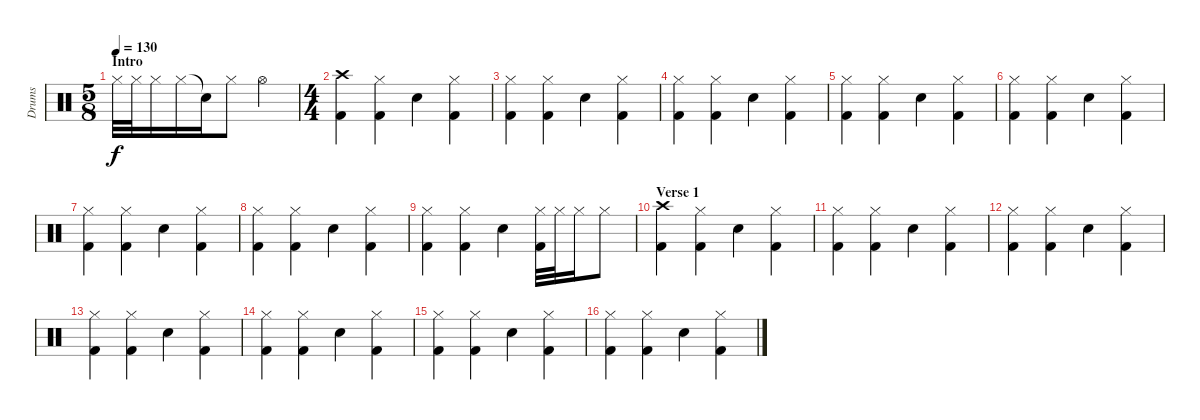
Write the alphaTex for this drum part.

\track ("Drums" "Drums") {instrument percussion}
\staff {score}
\articulation defaults
\ts (5 8)
\section ("" "Intro")
\tempo 130
\clef neutral
\ks c "Hi-Hat (closed)".32{dy f} "Hi-Hat (closed)".32 "Hi-Hat (closed)".16 "Hi-Hat (closed)".16 "Snare (hit)"{t}.16 "Hi-Hat (closed)".8 "Hi-Hat (open)".4
|
\ts (4 4)
("Kick (hit) 2" "Crash high (hit)").4 ("Kick (hit) 2" "Hi-Hat (closed)").4 "Electric Snare (hit)".4 ("Kick (hit) 2" "Hi-Hat (closed)").4 |
("Kick (hit) 2" "Hi-Hat (closed)").4 ("Kick (hit) 2" "Hi-Hat (closed)").4 "Electric Snare (hit)".4 ("Kick (hit) 2" "Hi-Hat (closed)").4 |
("Kick (hit) 2" "Hi-Hat (closed)").4 ("Kick (hit) 2" "Hi-Hat (closed)").4 "Electric Snare (hit)".4 ("Kick (hit) 2" "Hi-Hat (closed)").4 |
("Kick (hit) 2" "Hi-Hat (closed)").4 ("Kick (hit) 2" "Hi-Hat (closed)").4 "Electric Snare (hit)".4 ("Kick (hit) 2" "Hi-Hat (closed)").4 |
("Kick (hit) 2" "Hi-Hat (closed)").4 ("Kick (hit) 2" "Hi-Hat (closed)").4 "Electric Snare (hit)".4 ("Kick (hit) 2" "Hi-Hat (closed)").4 |
("Kick (hit) 2" "Hi-Hat (closed)").4 ("Kick (hit) 2" "Hi-Hat (closed)").4 "Electric Snare (hit)".4 ("Kick (hit) 2" "Hi-Hat (closed)").4 |
("Kick (hit) 2" "Hi-Hat (closed)").4 ("Kick (hit) 2" "Hi-Hat (closed)").4 "Electric Snare (hit)".4 ("Kick (hit) 2" "Hi-Hat (closed)").4 |
("Kick (hit) 2" "Hi-Hat (closed)").4 ("Kick (hit) 2" "Hi-Hat (closed)").4 "Electric Snare (hit)".4 ("Kick (hit) 2" "Hi-Hat (closed)").32 "Hi-Hat (closed)".32 "Hi-Hat (closed)".16 "Hi-Hat (closed)".8 |
\section ("" "Verse 1")
("Kick (hit) 2" "Crash high (hit)").4 ("Kick (hit) 2" "Hi-Hat (closed)").4 "Electric Snare (hit)".4 ("Kick (hit) 2" "Hi-Hat (closed)").4 |
("Kick (hit) 2" "Hi-Hat (closed)").4 ("Kick (hit) 2" "Hi-Hat (closed)").4 "Electric Snare (hit)".4 ("Kick (hit) 2" "Hi-Hat (closed)").4 |
("Kick (hit) 2" "Hi-Hat (closed)").4 ("Kick (hit) 2" "Hi-Hat (closed)").4 "Electric Snare (hit)".4 ("Kick (hit) 2" "Hi-Hat (closed)").4 |
("Kick (hit) 2" "Hi-Hat (closed)").4 ("Kick (hit) 2" "Hi-Hat (closed)").4 "Electric Snare (hit)".4 ("Kick (hit) 2" "Hi-Hat (closed)").4 |
("Kick (hit) 2" "Hi-Hat (closed)").4 ("Kick (hit) 2" "Hi-Hat (closed)").4 "Electric Snare (hit)".4 ("Kick (hit) 2" "Hi-Hat (closed)").4 |
("Kick (hit) 2" "Hi-Hat (closed)").4 ("Kick (hit) 2" "Hi-Hat (closed)").4 "Electric Snare (hit)".4 ("Kick (hit) 2" "Hi-Hat (closed)").4 |
("Kick (hit) 2" "Hi-Hat (closed)").4 ("Kick (hit) 2" "Hi-Hat (closed)").4 "Electric Snare (hit)".4 ("Kick (hit) 2" "Hi-Hat (closed)").4
